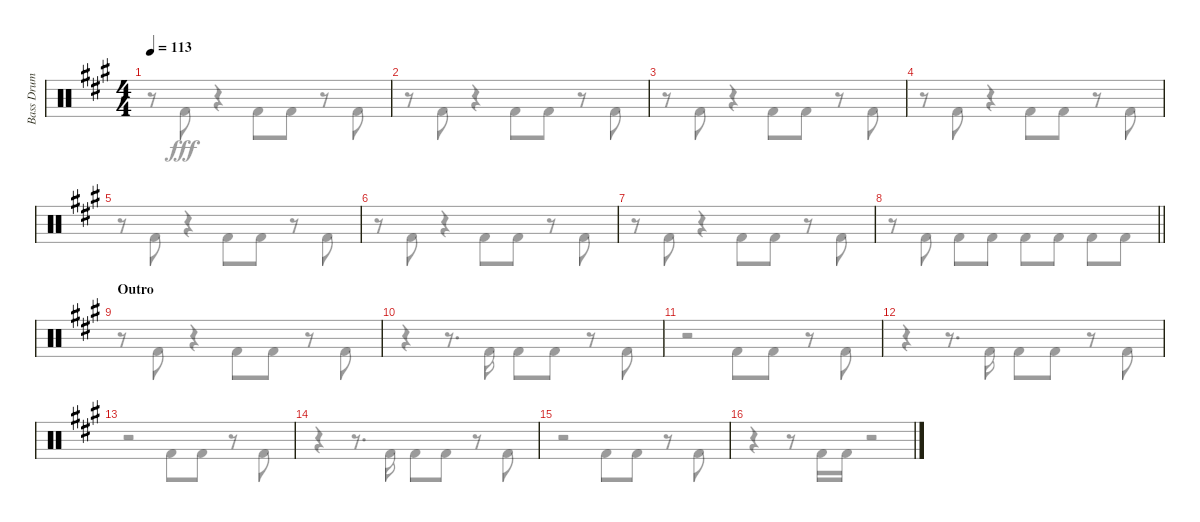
\track ("Bass Drum" "Bass Drum") {instrument percussion}
\staff {score}
\articulation defaults
\voice
\ts (4 4)
\tempo 113
\clef neutral
\ks f#minor
|
|
|
|
|
|
|
\barLineRight lightlight
|
\section ("" "Outro")
|
|
|
|
|
|
|
\voice
\clef neutral
\ks f#minor
r.8{dy fff} "Kick (hit) 2".8 r.4 "Kick (hit) 2".8 "Kick (hit) 2".8 r.8 "Kick (hit) 2".8 |
r.8 "Kick (hit) 2".8 r.4 "Kick (hit) 2".8 "Kick (hit) 2".8 r.8 "Kick (hit) 2".8 |
r.8 "Kick (hit) 2".8 r.4 "Kick (hit) 2".8 "Kick (hit) 2".8 r.8 "Kick (hit) 2".8 |
r.8 "Kick (hit) 2".8 r.4 "Kick (hit) 2".8 "Kick (hit) 2".8 r.8 "Kick (hit) 2".8 |
r.8 "Kick (hit) 2".8 r.4 "Kick (hit) 2".8 "Kick (hit) 2".8 r.8 "Kick (hit) 2".8 |
r.8 "Kick (hit) 2".8 r.4 "Kick (hit) 2".8 "Kick (hit) 2".8 r.8 "Kick (hit) 2".8 |
r.8 "Kick (hit) 2".8 r.4 "Kick (hit) 2".8 "Kick (hit) 2".8 r.8 "Kick (hit) 2".8 |
\barLineRight lightlight
r.8 "Kick (hit) 2".8 "Kick (hit) 2".8 "Kick (hit) 2".8 "Kick (hit) 2".8 "Kick (hit) 2".8 "Kick (hit) 2".8 "Kick (hit) 2".8 |
r.8 "Kick (hit) 2".8 r.4 "Kick (hit) 2".8 "Kick (hit) 2".8 r.8 "Kick (hit) 2".8 |
r.4 r.8{d} "Kick (hit) 2".16 "Kick (hit) 2".8 "Kick (hit) 2".8 r.8 "Kick (hit) 2".8 |
r.2 "Kick (hit) 2".8 "Kick (hit) 2".8 r.8 "Kick (hit) 2".8 |
r.4 r.8{d} "Kick (hit) 2".16 "Kick (hit) 2".8 "Kick (hit) 2".8 r.8 "Kick (hit) 2".8 |
r.2 "Kick (hit) 2".8 "Kick (hit) 2".8 r.8 "Kick (hit) 2".8 |
r.4 r.8{d} "Kick (hit) 2".16 "Kick (hit) 2".8 "Kick (hit) 2".8 r.8 "Kick (hit) 2".8 |
r.2 "Kick (hit) 2".8 "Kick (hit) 2".8 r.8 "Kick (hit) 2".8 |
r.4 r.8 "Kick (hit) 2".16 "Kick (hit) 2".16 r.2
